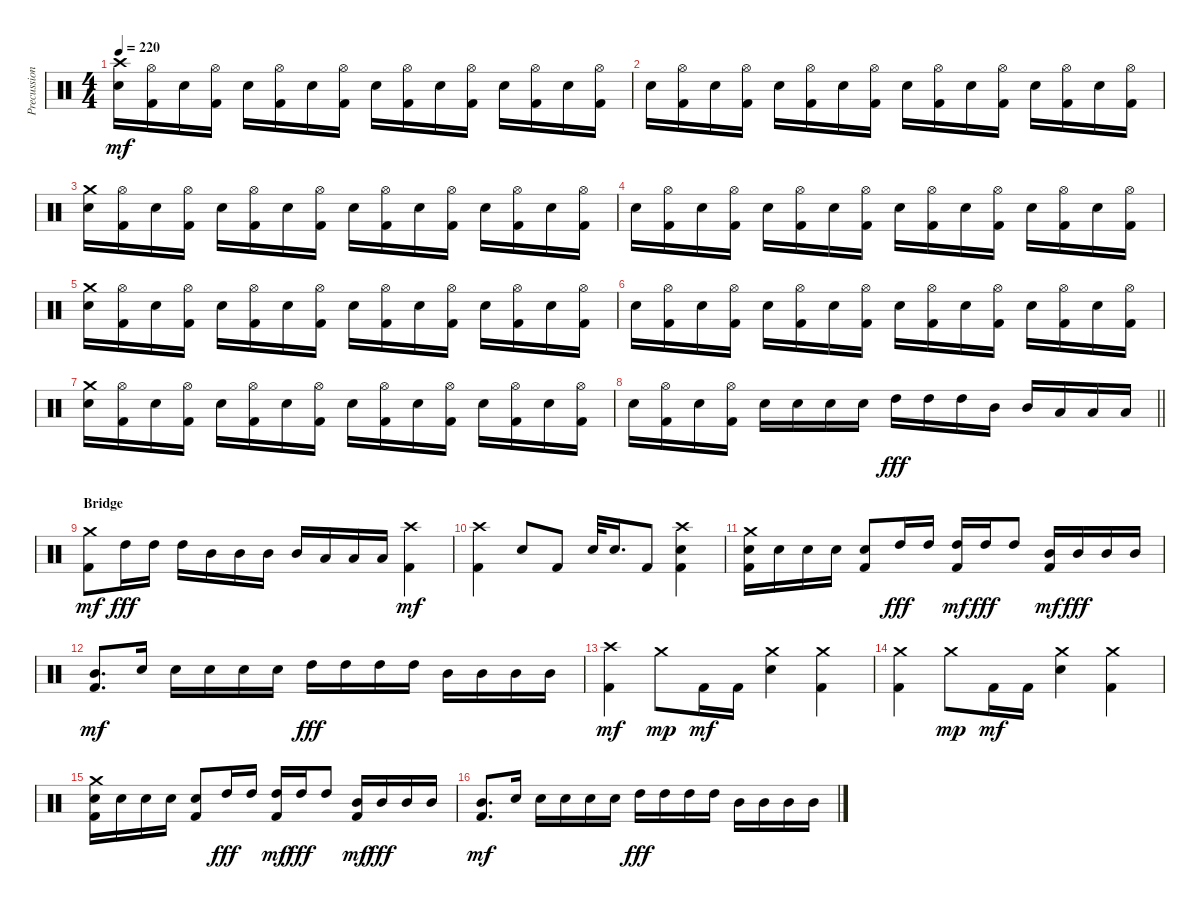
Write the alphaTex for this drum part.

\track ("Precussion" "Precussion") {instrument percussion}
\staff {score}
\articulation defaults
\ts (4 4)
\tempo 220
\clef neutral
\ks c
("Crash high (hit)" "Electric Snare (hit)").16{dy mf} ("Hi-Hat (open)" "Kick (hit) 2").16 "Electric Snare (hit)".16 ("Hi-Hat (open)" "Kick (hit) 2").16 "Electric Snare (hit)".16 ("Hi-Hat (open)" "Kick (hit) 2").16 "Electric Snare (hit)".16 ("Hi-Hat (open)" "Kick (hit) 2").16 "Electric Snare (hit)".16 ("Hi-Hat (open)" "Kick (hit) 2").16 "Electric Snare (hit)".16 ("Hi-Hat (open)" "Kick (hit) 2").16 "Electric Snare (hit)".16 ("Hi-Hat (open)" "Kick (hit) 2").16 "Electric Snare (hit)".16 ("Hi-Hat (open)" "Kick (hit) 2").16 |
"Electric Snare (hit)".16 ("Hi-Hat (open)" "Kick (hit) 2").16 "Electric Snare (hit)".16 ("Hi-Hat (open)" "Kick (hit) 2").16 "Electric Snare (hit)".16 ("Hi-Hat (open)" "Kick (hit) 2").16 "Electric Snare (hit)".16 ("Hi-Hat (open)" "Kick (hit) 2").16 "Electric Snare (hit)".16 ("Hi-Hat (open)" "Kick (hit) 2").16 "Electric Snare (hit)".16 ("Hi-Hat (open)" "Kick (hit) 2").16 "Electric Snare (hit)".16 ("Hi-Hat (open)" "Kick (hit) 2").16 "Electric Snare (hit)".16 ("Hi-Hat (open)" "Kick (hit) 2").16 |
("Crash medium (hit)" "Electric Snare (hit)").16 ("Hi-Hat (open)" "Kick (hit) 2").16 "Electric Snare (hit)".16 ("Hi-Hat (open)" "Kick (hit) 2").16 "Electric Snare (hit)".16 ("Hi-Hat (open)" "Kick (hit) 2").16 "Electric Snare (hit)".16 ("Hi-Hat (open)" "Kick (hit) 2").16 "Electric Snare (hit)".16 ("Hi-Hat (open)" "Kick (hit) 2").16 "Electric Snare (hit)".16 ("Hi-Hat (open)" "Kick (hit) 2").16 "Electric Snare (hit)".16 ("Hi-Hat (open)" "Kick (hit) 2").16 "Electric Snare (hit)".16 ("Hi-Hat (open)" "Kick (hit) 2").16 |
"Electric Snare (hit)".16 ("Hi-Hat (open)" "Kick (hit) 2").16 "Electric Snare (hit)".16 ("Hi-Hat (open)" "Kick (hit) 2").16 "Electric Snare (hit)".16 ("Hi-Hat (open)" "Kick (hit) 2").16 "Electric Snare (hit)".16 ("Hi-Hat (open)" "Kick (hit) 2").16 "Electric Snare (hit)".16 ("Hi-Hat (open)" "Kick (hit) 2").16 "Electric Snare (hit)".16 ("Hi-Hat (open)" "Kick (hit) 2").16 "Electric Snare (hit)".16 ("Hi-Hat (open)" "Kick (hit) 2").16 "Electric Snare (hit)".16 ("Hi-Hat (open)" "Kick (hit) 2").16 |
("Crash medium (hit)" "Electric Snare (hit)").16 ("Hi-Hat (open)" "Kick (hit) 2").16 "Electric Snare (hit)".16 ("Hi-Hat (open)" "Kick (hit) 2").16 "Electric Snare (hit)".16 ("Hi-Hat (open)" "Kick (hit) 2").16 "Electric Snare (hit)".16 ("Hi-Hat (open)" "Kick (hit) 2").16 "Electric Snare (hit)".16 ("Hi-Hat (open)" "Kick (hit) 2").16 "Electric Snare (hit)".16 ("Hi-Hat (open)" "Kick (hit) 2").16 "Electric Snare (hit)".16 ("Hi-Hat (open)" "Kick (hit) 2").16 "Electric Snare (hit)".16 ("Hi-Hat (open)" "Kick (hit) 2").16 |
"Electric Snare (hit)".16 ("Hi-Hat (open)" "Kick (hit) 2").16 "Electric Snare (hit)".16 ("Hi-Hat (open)" "Kick (hit) 2").16 "Electric Snare (hit)".16 ("Hi-Hat (open)" "Kick (hit) 2").16 "Electric Snare (hit)".16 ("Hi-Hat (open)" "Kick (hit) 2").16 "Electric Snare (hit)".16 ("Hi-Hat (open)" "Kick (hit) 2").16 "Electric Snare (hit)".16 ("Hi-Hat (open)" "Kick (hit) 2").16 "Electric Snare (hit)".16 ("Hi-Hat (open)" "Kick (hit) 2").16 "Electric Snare (hit)".16 ("Hi-Hat (open)" "Kick (hit) 2").16 |
("Crash medium (hit)" "Electric Snare (hit)").16 ("Hi-Hat (open)" "Kick (hit) 2").16 "Electric Snare (hit)".16 ("Hi-Hat (open)" "Kick (hit) 2").16 "Electric Snare (hit)".16 ("Hi-Hat (open)" "Kick (hit) 2").16 "Electric Snare (hit)".16 ("Hi-Hat (open)" "Kick (hit) 2").16 "Electric Snare (hit)".16 ("Hi-Hat (open)" "Kick (hit) 2").16 "Electric Snare (hit)".16 ("Hi-Hat (open)" "Kick (hit) 2").16 "Electric Snare (hit)".16 ("Hi-Hat (open)" "Kick (hit) 2").16 "Electric Snare (hit)".16 ("Hi-Hat (open)" "Kick (hit) 2").16 |
\barLineRight lightlight "Electric Snare (hit)".16
("Hi-Hat (open)" "Kick (hit) 2").16 "Electric Snare (hit)".16 ("Hi-Hat (open)" "Kick (hit) 2").16 "Electric Snare (hit)".16 "Electric Snare (hit)".16 "Electric Snare (hit)".16 "Electric Snare (hit)".16 "High Tom (hit)".16{dy fff} "High Tom (hit)".16 "High Tom (hit)".16 "Mid Tom (hit)".16 "Mid Tom (hit)".16 "Low Tom (hit)".16 "Low Tom (hit)".16 "Low Tom (hit)".16 |
\section ("" "Bridge")
("Crash medium (hit)" "Kick (hit) 2").8{dy mf} "High Tom (hit)".16{dy fff} "High Tom (hit)".16 "High Tom (hit)".16 "Mid Tom (hit)".16 "Mid Tom (hit)".16 "Mid Tom (hit)".16 "Mid Tom (hit)".16 "Low Tom (hit)".16 "Low Tom (hit)".16 "Low Tom (hit)".16 ("Crash high (hit)" "Kick (hit) 2").4{dy mf} |
("Crash high (hit)" "Kick (hit) 2").4 "Electric Snare (hit)".8 "Kick (hit) 2".8 "Electric Snare (hit)".32 "Electric Snare (hit)".16{d} "Kick (hit) 2".8 ("Crash high (hit)" "Electric Snare (hit)" "Kick (hit) 2").4 |
("Crash medium (hit)" "Electric Snare (hit)" "Kick (hit) 2").16 "Electric Snare (hit)".16 "Electric Snare (hit)".16 "Electric Snare (hit)".16 ("Electric Snare (hit)" "Kick (hit) 2").8 "High Tom (hit)".16{dy fff} "High Tom (hit)".16 ("High Tom (hit)" "Kick (hit) 2").16{dy mf} "High Tom (hit)".16{dy fff} "High Tom (hit)".8 ("Mid Tom (hit)" "Kick (hit) 2").16{dy mf} "Mid Tom (hit)".16{dy fff} "Mid Tom (hit)".16 "Mid Tom (hit)".16 |
("Mid Tom (hit)" "Kick (hit) 2").8{d dy mf} "Electric Snare (hit)".16 "Electric Snare (hit)".16 "Electric Snare (hit)".16 "Electric Snare (hit)".16 "Electric Snare (hit)".16 "High Tom (hit)".16{dy fff} "High Tom (hit)".16 "High Tom (hit)".16 "High Tom (hit)".16 "Mid Tom (hit)".16 "Mid Tom (hit)".16 "Mid Tom (hit)".16 "Mid Tom (hit)".16 |
("Crash high (hit)" "Kick (hit) 2").4{dy mf} "Crash medium (hit)".8{dy mp} "Kick (hit) 2".16{dy mf} "Kick (hit) 2".16 ("Crash medium (hit)" "Electric Snare (hit)").4 ("Crash medium (hit)" "Kick (hit) 2").4 |
("Crash medium (hit)" "Kick (hit) 2").4 "Crash medium (hit)".8{dy mp} "Kick (hit) 2".16{dy mf} "Kick (hit) 2".16 ("Crash medium (hit)" "Electric Snare (hit)").4 ("Crash medium (hit)" "Kick (hit) 2").4 |
("Crash medium (hit)" "Electric Snare (hit)" "Kick (hit) 2").16 "Electric Snare (hit)".16 "Electric Snare (hit)".16 "Electric Snare (hit)".16 ("Electric Snare (hit)" "Kick (hit) 2").8 "High Tom (hit)".16{dy fff} "High Tom (hit)".16 ("High Tom (hit)" "Kick (hit) 2").16{dy mf} "High Tom (hit)".16{dy fff} "High Tom (hit)".8 ("Mid Tom (hit)" "Kick (hit) 2").16{dy mf} "Mid Tom (hit)".16{dy fff} "Mid Tom (hit)".16 "Mid Tom (hit)".16 |
("Mid Tom (hit)" "Kick (hit) 2").8{d dy mf} "Electric Snare (hit)".16 "Electric Snare (hit)".16 "Electric Snare (hit)".16 "Electric Snare (hit)".16 "Electric Snare (hit)".16 "High Tom (hit)".16{dy fff} "High Tom (hit)".16 "High Tom (hit)".16 "High Tom (hit)".16 "Mid Tom (hit)".16 "Mid Tom (hit)".16 "Mid Tom (hit)".16 "Mid Tom (hit)".16
